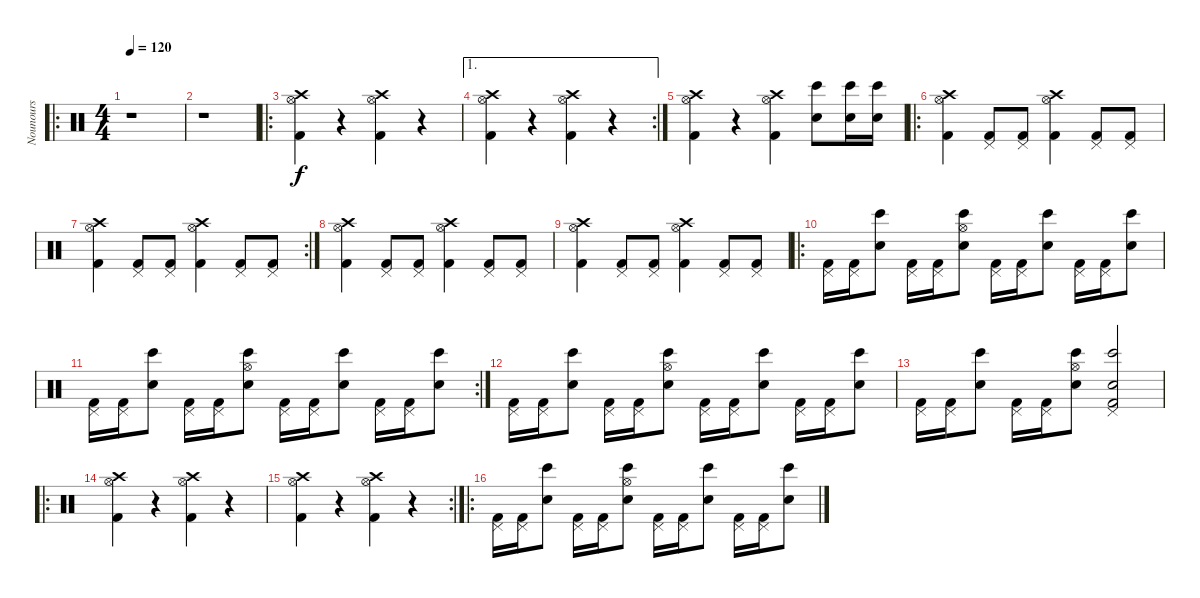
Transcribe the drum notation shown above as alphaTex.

\track ("Nounours" "Nounours") {instrument percussion}
\staff {score}
\articulation defaults
\ro
\ts (4 4)
\tempo 120
\clef neutral
\ks c
r.1{dy f} |
r.1 |
\ro
("Crash high (hit)" "Hi-Hat (open)" "Kick (hit) 2").4 r.4 ("Crash high (hit)" "Hi-Hat (open)" "Kick (hit) 2").4 r.4 |
\ae 1
\rc 2
("Crash high (hit)" "Hi-Hat (open)" "Kick (hit) 2").4 r.4 ("Crash high (hit)" "Hi-Hat (open)" "Kick (hit) 2").4 r.4 |
("Crash high (hit)" "Hi-Hat (open)" "Kick (hit) 2").4 r.4 ("Crash high (hit)" "Hi-Hat (open)" "Kick (hit) 2").4 ("Bongo High (hit)" "Electric Snare (hit)").8 ("Bongo High (hit)" "Electric Snare (hit)").16 ("Bongo High (hit)" "Electric Snare (hit)").16 |
\ro
("Crash high (hit)" "Hi-Hat (open)" "Kick (hit) 2").4 ("Pedal Hi-Hat (hit)" "Kick (hit) 2").8 ("Pedal Hi-Hat (hit)" "Kick (hit) 2").8 ("Crash high (hit)" "Hi-Hat (open)" "Kick (hit) 2").4 ("Pedal Hi-Hat (hit)" "Kick (hit) 2").8 ("Pedal Hi-Hat (hit)" "Kick (hit) 2").8 |
\rc 2
("Crash high (hit)" "Hi-Hat (open)" "Kick (hit) 2").4 ("Pedal Hi-Hat (hit)" "Kick (hit) 2").8 ("Pedal Hi-Hat (hit)" "Kick (hit) 2").8 ("Crash high (hit)" "Hi-Hat (open)" "Kick (hit) 2").4 ("Pedal Hi-Hat (hit)" "Kick (hit) 2").8 ("Pedal Hi-Hat (hit)" "Kick (hit) 2").8 |
("Crash high (hit)" "Hi-Hat (open)" "Kick (hit) 2").4 ("Pedal Hi-Hat (hit)" "Kick (hit) 2").8 ("Pedal Hi-Hat (hit)" "Kick (hit) 2").8 ("Crash high (hit)" "Hi-Hat (open)" "Kick (hit) 2").4 ("Pedal Hi-Hat (hit)" "Kick (hit) 2").8 ("Pedal Hi-Hat (hit)" "Kick (hit) 2").8 |
("Crash high (hit)" "Hi-Hat (open)" "Kick (hit) 2").4 ("Pedal Hi-Hat (hit)" "Kick (hit) 2").8 ("Pedal Hi-Hat (hit)" "Kick (hit) 2").8 ("Crash high (hit)" "Hi-Hat (open)" "Kick (hit) 2").4 ("Pedal Hi-Hat (hit)" "Kick (hit) 2").8 ("Pedal Hi-Hat (hit)" "Kick (hit) 2").8 |
\ro
("Pedal Hi-Hat (hit)" "Kick (hit) 2").16 ("Pedal Hi-Hat (hit)" "Kick (hit) 2").16 ("Bongo High (hit)" "Electric Snare (hit)").8 ("Pedal Hi-Hat (hit)" "Kick (hit) 2").16 ("Pedal Hi-Hat (hit)" "Kick (hit) 2").16 ("Hi-Hat (open)" "Bongo High (hit)" "Electric Snare (hit)").8 ("Pedal Hi-Hat (hit)" "Kick (hit) 2").16 ("Pedal Hi-Hat (hit)" "Kick (hit) 2").16 ("Bongo High (hit)" "Electric Snare (hit)").8 ("Pedal Hi-Hat (hit)" "Kick (hit) 2").16 ("Pedal Hi-Hat (hit)" "Kick (hit) 2").16 ("Bongo High (hit)" "Electric Snare (hit)").8 |
\rc 2
("Pedal Hi-Hat (hit)" "Kick (hit) 2").16 ("Pedal Hi-Hat (hit)" "Kick (hit) 2").16 ("Bongo High (hit)" "Electric Snare (hit)").8 ("Pedal Hi-Hat (hit)" "Kick (hit) 2").16 ("Pedal Hi-Hat (hit)" "Kick (hit) 2").16 ("Hi-Hat (open)" "Bongo High (hit)" "Electric Snare (hit)").8 ("Pedal Hi-Hat (hit)" "Kick (hit) 2").16 ("Pedal Hi-Hat (hit)" "Kick (hit) 2").16 ("Bongo High (hit)" "Electric Snare (hit)").8 ("Pedal Hi-Hat (hit)" "Kick (hit) 2").16 ("Pedal Hi-Hat (hit)" "Kick (hit) 2").16 ("Bongo High (hit)" "Electric Snare (hit)").8 |
("Pedal Hi-Hat (hit)" "Kick (hit) 2").16 ("Pedal Hi-Hat (hit)" "Kick (hit) 2").16 ("Bongo High (hit)" "Electric Snare (hit)").8 ("Pedal Hi-Hat (hit)" "Kick (hit) 2").16 ("Pedal Hi-Hat (hit)" "Kick (hit) 2").16 ("Hi-Hat (open)" "Bongo High (hit)" "Electric Snare (hit)").8 ("Pedal Hi-Hat (hit)" "Kick (hit) 2").16 ("Pedal Hi-Hat (hit)" "Kick (hit) 2").16 ("Bongo High (hit)" "Electric Snare (hit)").8 ("Pedal Hi-Hat (hit)" "Kick (hit) 2").16 ("Pedal Hi-Hat (hit)" "Kick (hit) 2").16 ("Bongo High (hit)" "Electric Snare (hit)").8 |
("Pedal Hi-Hat (hit)" "Kick (hit) 2").16 ("Pedal Hi-Hat (hit)" "Kick (hit) 2").16 ("Bongo High (hit)" "Electric Snare (hit)").8 ("Pedal Hi-Hat (hit)" "Kick (hit) 2").16 ("Pedal Hi-Hat (hit)" "Kick (hit) 2").16 ("Hi-Hat (open)" "Bongo High (hit)" "Electric Snare (hit)").8 ("Pedal Hi-Hat (hit)" "Electric Snare (hit)" "Kick (hit) 2" "Bongo High (hit)").2 |
\ro
("Crash high (hit)" "Hi-Hat (open)" "Kick (hit) 2").4 r.4 ("Crash high (hit)" "Hi-Hat (open)" "Kick (hit) 2").4 r.4 |
\rc 2
("Crash high (hit)" "Hi-Hat (open)" "Kick (hit) 2").4 r.4 ("Crash high (hit)" "Hi-Hat (open)" "Kick (hit) 2").4 r.4 |
\ro
("Pedal Hi-Hat (hit)" "Kick (hit) 2").16 ("Pedal Hi-Hat (hit)" "Kick (hit) 2").16 ("Bongo High (hit)" "Electric Snare (hit)").8 ("Pedal Hi-Hat (hit)" "Kick (hit) 2").16 ("Pedal Hi-Hat (hit)" "Kick (hit) 2").16 ("Hi-Hat (open)" "Bongo High (hit)" "Electric Snare (hit)").8 ("Pedal Hi-Hat (hit)" "Kick (hit) 2").16 ("Pedal Hi-Hat (hit)" "Kick (hit) 2").16 ("Bongo High (hit)" "Electric Snare (hit)").8 ("Pedal Hi-Hat (hit)" "Kick (hit) 2").16 ("Pedal Hi-Hat (hit)" "Kick (hit) 2").16 ("Bongo High (hit)" "Electric Snare (hit)").8
